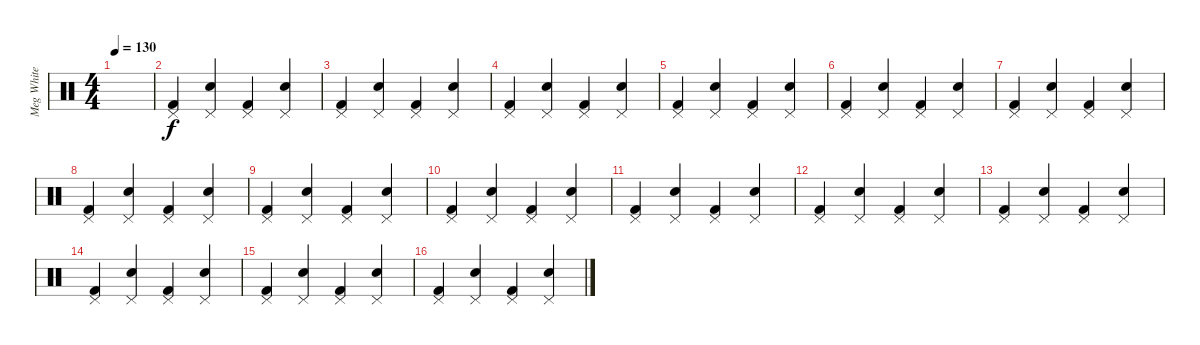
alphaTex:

\track ("Meg White" "Meg White") {instrument percussion}
\staff {score}
\articulation defaults
\ts (4 4)
\tempo 130
\clef neutral
\ks c
|
("Kick (hit) 2" "Pedal Hi-Hat (hit)").4 ("Electric Snare (hit)" "Pedal Hi-Hat (hit)").4 ("Kick (hit) 2" "Pedal Hi-Hat (hit)").4 ("Electric Snare (hit)" "Pedal Hi-Hat (hit)").4 |
("Kick (hit) 2" "Pedal Hi-Hat (hit)").4 ("Electric Snare (hit)" "Pedal Hi-Hat (hit)").4 ("Kick (hit) 2" "Pedal Hi-Hat (hit)").4 ("Electric Snare (hit)" "Pedal Hi-Hat (hit)").4 |
("Kick (hit) 2" "Pedal Hi-Hat (hit)").4 ("Electric Snare (hit)" "Pedal Hi-Hat (hit)").4 ("Kick (hit) 2" "Pedal Hi-Hat (hit)").4 ("Electric Snare (hit)" "Pedal Hi-Hat (hit)").4 |
("Kick (hit) 2" "Pedal Hi-Hat (hit)").4 ("Electric Snare (hit)" "Pedal Hi-Hat (hit)").4 ("Kick (hit) 2" "Pedal Hi-Hat (hit)").4 ("Electric Snare (hit)" "Pedal Hi-Hat (hit)").4 |
("Kick (hit) 2" "Pedal Hi-Hat (hit)").4 ("Electric Snare (hit)" "Pedal Hi-Hat (hit)").4 ("Kick (hit) 2" "Pedal Hi-Hat (hit)").4 ("Electric Snare (hit)" "Pedal Hi-Hat (hit)").4 |
("Kick (hit) 2" "Pedal Hi-Hat (hit)").4 ("Electric Snare (hit)" "Pedal Hi-Hat (hit)").4 ("Kick (hit) 2" "Pedal Hi-Hat (hit)").4 ("Electric Snare (hit)" "Pedal Hi-Hat (hit)").4 |
("Kick (hit) 2" "Pedal Hi-Hat (hit)").4 ("Electric Snare (hit)" "Pedal Hi-Hat (hit)").4 ("Kick (hit) 2" "Pedal Hi-Hat (hit)").4 ("Electric Snare (hit)" "Pedal Hi-Hat (hit)").4 |
("Kick (hit) 2" "Pedal Hi-Hat (hit)").4 ("Electric Snare (hit)" "Pedal Hi-Hat (hit)").4 ("Kick (hit) 2" "Pedal Hi-Hat (hit)").4 ("Electric Snare (hit)" "Pedal Hi-Hat (hit)").4 |
("Kick (hit) 2" "Pedal Hi-Hat (hit)").4 ("Electric Snare (hit)" "Pedal Hi-Hat (hit)").4 ("Kick (hit) 2" "Pedal Hi-Hat (hit)").4 ("Electric Snare (hit)" "Pedal Hi-Hat (hit)").4 |
("Kick (hit) 2" "Pedal Hi-Hat (hit)").4 ("Electric Snare (hit)" "Pedal Hi-Hat (hit)").4 ("Kick (hit) 2" "Pedal Hi-Hat (hit)").4 ("Electric Snare (hit)" "Pedal Hi-Hat (hit)").4 |
("Kick (hit) 2" "Pedal Hi-Hat (hit)").4 ("Electric Snare (hit)" "Pedal Hi-Hat (hit)").4 ("Kick (hit) 2" "Pedal Hi-Hat (hit)").4 ("Electric Snare (hit)" "Pedal Hi-Hat (hit)").4 |
("Kick (hit) 2" "Pedal Hi-Hat (hit)").4 ("Electric Snare (hit)" "Pedal Hi-Hat (hit)").4 ("Kick (hit) 2" "Pedal Hi-Hat (hit)").4 ("Electric Snare (hit)" "Pedal Hi-Hat (hit)").4 |
("Kick (hit) 2" "Pedal Hi-Hat (hit)").4 ("Electric Snare (hit)" "Pedal Hi-Hat (hit)").4 ("Kick (hit) 2" "Pedal Hi-Hat (hit)").4 ("Electric Snare (hit)" "Pedal Hi-Hat (hit)").4 |
("Kick (hit) 2" "Pedal Hi-Hat (hit)").4 ("Electric Snare (hit)" "Pedal Hi-Hat (hit)").4 ("Kick (hit) 2" "Pedal Hi-Hat (hit)").4 ("Electric Snare (hit)" "Pedal Hi-Hat (hit)").4 |
("Kick (hit) 2" "Pedal Hi-Hat (hit)").4 ("Electric Snare (hit)" "Pedal Hi-Hat (hit)").4 ("Kick (hit) 2" "Pedal Hi-Hat (hit)").4 ("Electric Snare (hit)" "Pedal Hi-Hat (hit)").4
